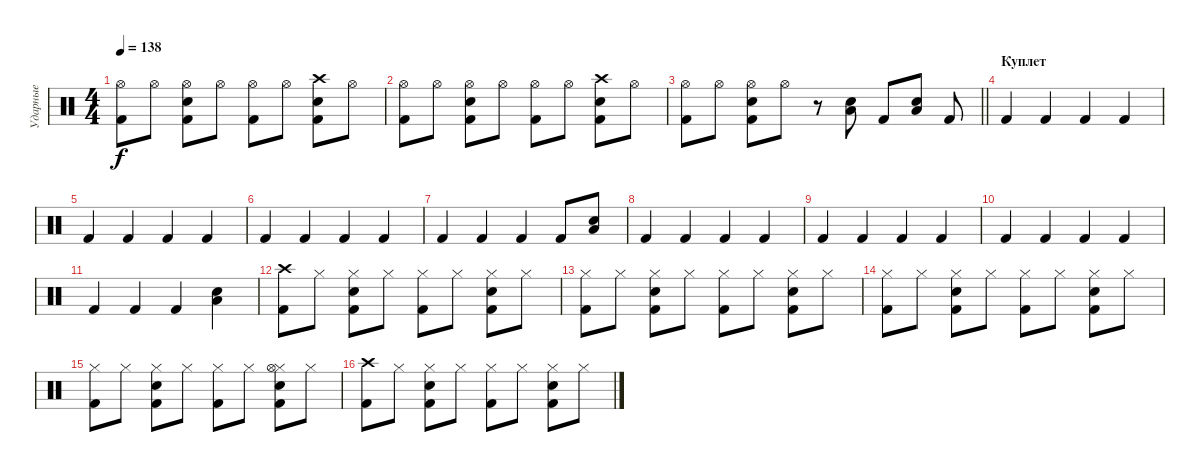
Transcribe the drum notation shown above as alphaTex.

\track ("Ударные" "Ударные") {instrument percussion}
\staff {score}
\articulation defaults
\ts (4 4)
\tempo 138
\clef neutral
\ks c
("Hi-Hat (open)" "Kick (hit) 2").8{dy f} "Hi-Hat (open)".8 ("Hi-Hat (open)" "Electric Snare (hit)" "Kick (hit) 2").8 "Hi-Hat (open)".8 ("Hi-Hat (open)" "Kick (hit) 2").8 "Hi-Hat (open)".8 ("Crash high (hit)" "Electric Snare (hit)" "Kick (hit) 2").8 "Hi-Hat (open)".8 |
("Hi-Hat (open)" "Kick (hit) 2").8 "Hi-Hat (open)".8 ("Hi-Hat (open)" "Electric Snare (hit)" "Kick (hit) 2").8 "Hi-Hat (open)".8 ("Hi-Hat (open)" "Kick (hit) 2").8 "Hi-Hat (open)".8 ("Crash high (hit)" "Electric Snare (hit)" "Kick (hit) 2").8 "Hi-Hat (open)".8 |
\barLineRight lightlight
("Hi-Hat (open)" "Kick (hit) 2").8 "Hi-Hat (open)".8 ("Hi-Hat (open)" "Electric Snare (hit)" "Kick (hit) 2").8 "Hi-Hat (open)".8 r.8 ("Low Tom (hit)" "Electric Snare (hit)").8 "Kick (hit) 2".8 ("Low Tom (hit)" "Electric Snare (hit)").8 "Kick (hit) 2".8 |
\section ("" "Куплет")
"Kick (hit) 2".4 "Kick (hit) 2".4 "Kick (hit) 2".4 "Kick (hit) 2".4 |
"Kick (hit) 2".4 "Kick (hit) 2".4 "Kick (hit) 2".4 "Kick (hit) 2".4 |
"Kick (hit) 2".4 "Kick (hit) 2".4 "Kick (hit) 2".4 "Kick (hit) 2".4 |
"Kick (hit) 2".4 "Kick (hit) 2".4 "Kick (hit) 2".4 "Kick (hit) 2".8 ("Low Tom (hit)" "Electric Snare (hit)").8 |
"Kick (hit) 2".4 "Kick (hit) 2".4 "Kick (hit) 2".4 "Kick (hit) 2".4 |
"Kick (hit) 2".4 "Kick (hit) 2".4 "Kick (hit) 2".4 "Kick (hit) 2".4 |
"Kick (hit) 2".4 "Kick (hit) 2".4 "Kick (hit) 2".4 "Kick (hit) 2".4 |
"Kick (hit) 2".4 "Kick (hit) 2".4 "Kick (hit) 2".4 ("Low Tom (hit)" "Electric Snare (hit)").4 |
("Crash high (hit)" "Kick (hit) 2").8 "Hi-Hat (closed)".8 ("Hi-Hat (closed)" "Electric Snare (hit)" "Kick (hit) 2").8 "Hi-Hat (closed)".8 ("Hi-Hat (closed)" "Kick (hit) 2").8 "Hi-Hat (closed)".8 ("Hi-Hat (closed)" "Electric Snare (hit)" "Kick (hit) 2").8 "Hi-Hat (closed)".8 |
("Hi-Hat (closed)" "Kick (hit) 2").8 "Hi-Hat (closed)".8 ("Hi-Hat (closed)" "Electric Snare (hit)" "Kick (hit) 2").8 "Hi-Hat (closed)".8 ("Hi-Hat (closed)" "Kick (hit) 2").8 "Hi-Hat (closed)".8 ("Hi-Hat (closed)" "Electric Snare (hit)" "Kick (hit) 2").8 "Hi-Hat (closed)".8 |
("Hi-Hat (closed)" "Kick (hit) 2").8 "Hi-Hat (closed)".8 ("Hi-Hat (closed)" "Electric Snare (hit)" "Kick (hit) 2").8 "Hi-Hat (closed)".8 ("Hi-Hat (closed)" "Kick (hit) 2").8 "Hi-Hat (closed)".8 ("Hi-Hat (closed)" "Electric Snare (hit)" "Kick (hit) 2").8 "Hi-Hat (closed)".8 |
("Hi-Hat (closed)" "Kick (hit) 2").8 "Hi-Hat (closed)".8 ("Hi-Hat (closed)" "Electric Snare (hit)" "Kick (hit) 2").8 "Hi-Hat (closed)".8 ("Hi-Hat (closed)" "Kick (hit) 2").8 "Hi-Hat (closed)".8 ("Hi-Hat (closed)" "Hi-Hat (open)" "Electric Snare (hit)" "Kick (hit) 2").8 "Hi-Hat (closed)".8 |
("Crash high (hit)" "Kick (hit) 2").8 "Hi-Hat (closed)".8 ("Hi-Hat (closed)" "Electric Snare (hit)" "Kick (hit) 2").8 "Hi-Hat (closed)".8 ("Hi-Hat (closed)" "Kick (hit) 2").8 "Hi-Hat (closed)".8 ("Hi-Hat (closed)" "Electric Snare (hit)" "Kick (hit) 2").8 "Hi-Hat (closed)".8
